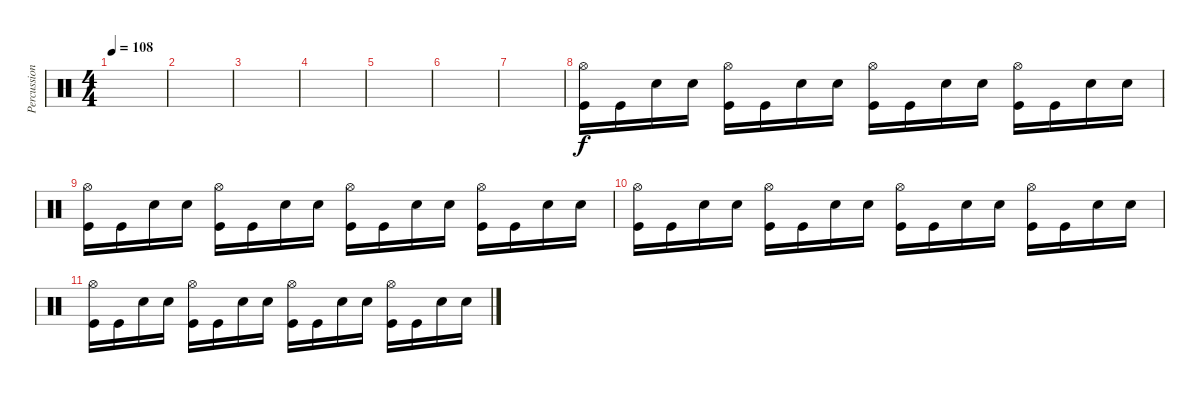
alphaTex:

\track ("Percussion" "Percussion") {instrument percussion}
\staff {score}
\articulation defaults
\ts (4 4)
\tempo 108
\clef neutral
\ks c
|
|
|
|
|
|
|
("Hi-Hat (open)" "Kick (hit)").16 "Kick (hit)".16 "Snare (hit) 2".16 "Snare (hit) 2".16 ("Hi-Hat (open)" "Kick (hit)").16 "Kick (hit)".16 "Snare (hit) 2".16 "Snare (hit) 2".16 ("Hi-Hat (open)" "Kick (hit)").16 "Kick (hit)".16 "Snare (hit) 2".16 "Snare (hit) 2".16 ("Hi-Hat (open)" "Kick (hit)").16 "Kick (hit)".16 "Snare (hit) 2".16 "Snare (hit) 2".16 |
("Hi-Hat (open)" "Kick (hit)").16 "Kick (hit)".16 "Snare (hit) 2".16 "Snare (hit) 2".16 ("Hi-Hat (open)" "Kick (hit)").16 "Kick (hit)".16 "Snare (hit) 2".16 "Snare (hit) 2".16 ("Hi-Hat (open)" "Kick (hit)").16 "Kick (hit)".16 "Snare (hit) 2".16 "Snare (hit) 2".16 ("Hi-Hat (open)" "Kick (hit)").16 "Kick (hit)".16 "Snare (hit) 2".16 "Snare (hit) 2".16 |
("Hi-Hat (open)" "Kick (hit)").16 "Kick (hit)".16 "Snare (hit) 2".16 "Snare (hit) 2".16 ("Hi-Hat (open)" "Kick (hit)").16 "Kick (hit)".16 "Snare (hit) 2".16 "Snare (hit) 2".16 ("Hi-Hat (open)" "Kick (hit)").16 "Kick (hit)".16 "Snare (hit) 2".16 "Snare (hit) 2".16 ("Hi-Hat (open)" "Kick (hit)").16 "Kick (hit)".16 "Snare (hit) 2".16 "Snare (hit) 2".16 |
("Hi-Hat (open)" "Kick (hit)").16 "Kick (hit)".16 "Snare (hit) 2".16 "Snare (hit) 2".16 ("Hi-Hat (open)" "Kick (hit)").16 "Kick (hit)".16 "Snare (hit) 2".16 "Snare (hit) 2".16 ("Hi-Hat (open)" "Kick (hit)").16 "Kick (hit)".16 "Snare (hit) 2".16 "Snare (hit) 2".16 ("Hi-Hat (open)" "Kick (hit)").16 "Kick (hit)".16 "Snare (hit) 2".16 "Snare (hit) 2".16
